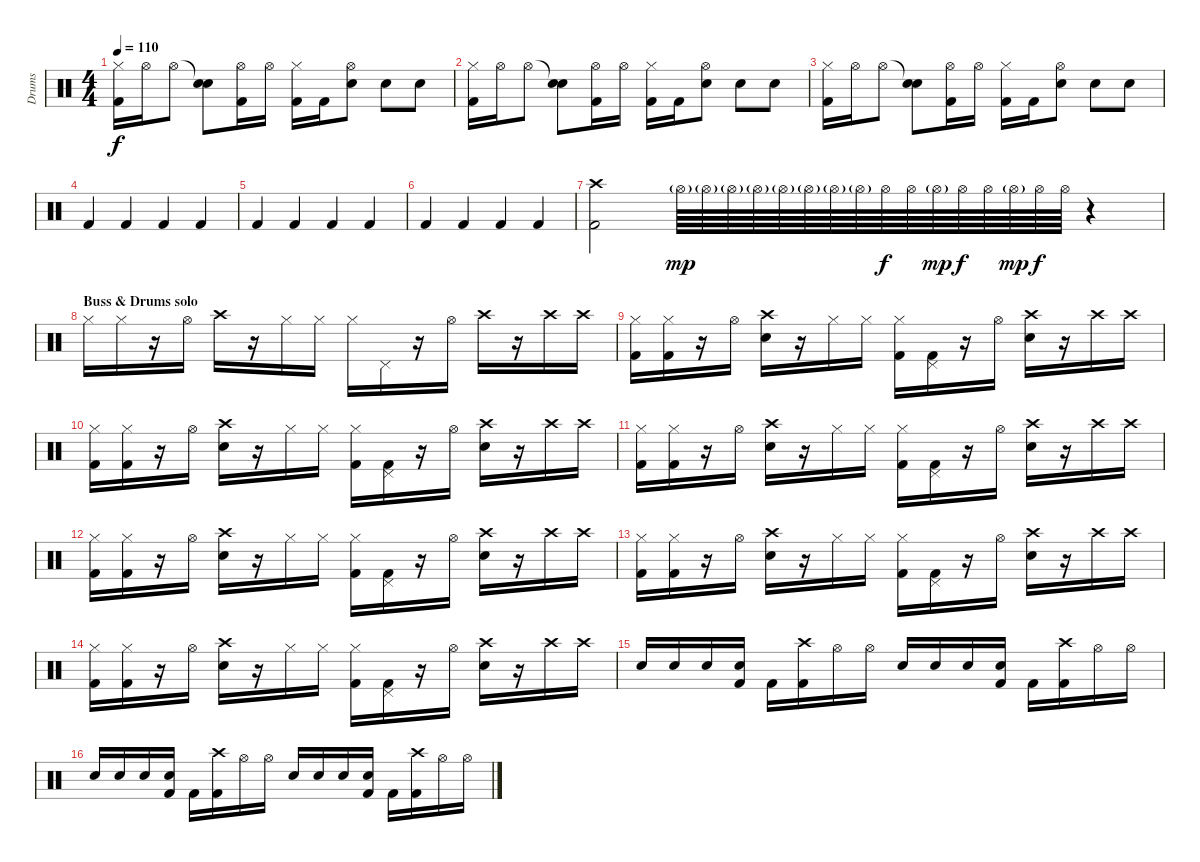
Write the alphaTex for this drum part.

\track ("Drums" "Drums") {instrument percussion}
\staff {score}
\articulation defaults
\ts (4 4)
\tempo 110
\clef neutral
\ks c
("Hi-Hat (closed)" "Kick (hit) 2").16{dy f} "Hi-Hat (open)".16 "Hi-Hat (open)".8 ("Snare (hit)"{t} "Snare (hit) 2").8 ("Hi-Hat (open)" "Kick (hit) 2").16 "Hi-Hat (open)".16 ("Hi-Hat (closed)" "Kick (hit) 2").16 "Kick (hit) 2".16 ("Hi-Hat (open)" "Snare (hit) 2").8 "Snare (hit) 2".8 "Snare (hit) 2".8 |
("Hi-Hat (closed)" "Kick (hit) 2").16 "Hi-Hat (open)".16 "Hi-Hat (open)".8 ("Snare (hit)"{t} "Snare (hit) 2").8 ("Hi-Hat (open)" "Kick (hit) 2").16 "Hi-Hat (open)".16 ("Hi-Hat (closed)" "Kick (hit) 2").16 "Kick (hit) 2".16 ("Hi-Hat (open)" "Snare (hit) 2").8 "Snare (hit) 2".8 "Snare (hit) 2".8 |
("Hi-Hat (closed)" "Kick (hit) 2").16 "Hi-Hat (open)".16 "Hi-Hat (open)".8 ("Snare (hit)"{t} "Snare (hit) 2").8 ("Hi-Hat (open)" "Kick (hit) 2").16 "Hi-Hat (open)".16 ("Hi-Hat (closed)" "Kick (hit) 2").16 "Kick (hit) 2".16 ("Hi-Hat (open)" "Snare (hit) 2").8 "Snare (hit) 2".8 "Snare (hit) 2".8 |
"Kick (hit) 2".4 "Kick (hit) 2".4 "Kick (hit) 2".4 "Kick (hit) 2".4 |
"Kick (hit) 2".4 "Kick (hit) 2".4 "Kick (hit) 2".4 "Kick (hit) 2".4 |
"Kick (hit) 2".4 "Kick (hit) 2".4 "Kick (hit) 2".4 "Kick (hit) 2".4 |
("Crash high (hit)" "Kick (hit) 2").2 "Hi-Hat (open)"{g}.64{dy mp} "Hi-Hat (open)"{g}.64 "Hi-Hat (open)"{g}.64 "Hi-Hat (open)"{g}.64 "Hi-Hat (open)"{g}.64 "Hi-Hat (open)"{g}.64 "Hi-Hat (open)"{g}.64 "Hi-Hat (open)"{g}.64 "Hi-Hat (open)".64{dy f} "Hi-Hat (open)".64 "Hi-Hat (open)"{g}.64{dy mp} "Hi-Hat (open)".64{dy f} "Hi-Hat (open)".64 "Hi-Hat (open)"{g}.64{dy mp} "Hi-Hat (open)".64{dy f} "Hi-Hat (open)".64 r.4 |
\section ("" "Buss & Drums solo")
"Hi-Hat (closed)".16 "Hi-Hat (closed)".16 r.16 "Hi-Hat (open)".16 "Crash high (hit)".16 r.16 "Hi-Hat (closed)".16 "Hi-Hat (closed)".16 "Hi-Hat (closed)".16 "Pedal Hi-Hat (hit)".16 r.16 "Hi-Hat (open)".16 "Crash high (hit)".16 r.16 "Crash high (hit)".16 "Crash high (hit)".16 |
("Hi-Hat (closed)" "Kick (hit) 2").16 ("Hi-Hat (closed)" "Kick (hit) 2").16 r.16 "Hi-Hat (open)".16 ("Crash high (hit)" "Snare (hit) 2").16 r.16 "Hi-Hat (closed)".16 "Hi-Hat (closed)".16 ("Hi-Hat (closed)" "Kick (hit) 2").16 ("Pedal Hi-Hat (hit)" "Kick (hit) 2").16 r.16 "Hi-Hat (open)".16 ("Crash high (hit)" "Snare (hit) 2").16 r.16 "Crash high (hit)".16 "Crash high (hit)".16 |
("Hi-Hat (closed)" "Kick (hit) 2").16 ("Hi-Hat (closed)" "Kick (hit) 2").16 r.16 "Hi-Hat (open)".16 ("Crash high (hit)" "Snare (hit) 2").16 r.16 "Hi-Hat (closed)".16 "Hi-Hat (closed)".16 ("Hi-Hat (closed)" "Kick (hit) 2").16 ("Pedal Hi-Hat (hit)" "Kick (hit) 2").16 r.16 "Hi-Hat (open)".16 ("Crash high (hit)" "Snare (hit) 2").16 r.16 "Crash high (hit)".16 "Crash high (hit)".16 |
("Hi-Hat (closed)" "Kick (hit) 2").16 ("Hi-Hat (closed)" "Kick (hit) 2").16 r.16 "Hi-Hat (open)".16 ("Crash high (hit)" "Snare (hit) 2").16 r.16 "Hi-Hat (closed)".16 "Hi-Hat (closed)".16 ("Hi-Hat (closed)" "Kick (hit) 2").16 ("Pedal Hi-Hat (hit)" "Kick (hit) 2").16 r.16 "Hi-Hat (open)".16 ("Crash high (hit)" "Snare (hit) 2").16 r.16 "Crash high (hit)".16 "Crash high (hit)".16 |
("Hi-Hat (closed)" "Kick (hit) 2").16 ("Hi-Hat (closed)" "Kick (hit) 2").16 r.16 "Hi-Hat (open)".16 ("Crash high (hit)" "Snare (hit) 2").16 r.16 "Hi-Hat (closed)".16 "Hi-Hat (closed)".16 ("Hi-Hat (closed)" "Kick (hit) 2").16 ("Pedal Hi-Hat (hit)" "Kick (hit) 2").16 r.16 "Hi-Hat (open)".16 ("Crash high (hit)" "Snare (hit) 2").16 r.16 "Crash high (hit)".16 "Crash high (hit)".16 |
("Hi-Hat (closed)" "Kick (hit) 2").16 ("Hi-Hat (closed)" "Kick (hit) 2").16 r.16 "Hi-Hat (open)".16 ("Crash high (hit)" "Snare (hit) 2").16 r.16 "Hi-Hat (closed)".16 "Hi-Hat (closed)".16 ("Hi-Hat (closed)" "Kick (hit) 2").16 ("Pedal Hi-Hat (hit)" "Kick (hit) 2").16 r.16 "Hi-Hat (open)".16 ("Crash high (hit)" "Snare (hit) 2").16 r.16 "Crash high (hit)".16 "Crash high (hit)".16 |
("Hi-Hat (closed)" "Kick (hit) 2").16 ("Hi-Hat (closed)" "Kick (hit) 2").16 r.16 "Hi-Hat (open)".16 ("Crash high (hit)" "Snare (hit) 2").16 r.16 "Hi-Hat (closed)".16 "Hi-Hat (closed)".16 ("Hi-Hat (closed)" "Kick (hit) 2").16 ("Pedal Hi-Hat (hit)" "Kick (hit) 2").16 r.16 "Hi-Hat (open)".16 ("Crash high (hit)" "Snare (hit) 2").16 r.16 "Crash high (hit)".16 "Crash high (hit)".16 |
"Snare (hit) 2".16 "Snare (hit) 2".16 "Snare (hit) 2".16 ("Snare (hit) 2" "Kick (hit) 2").16 "Kick (hit) 2".16 ("Crash high (hit)" "Kick (hit) 2").16 "Hi-Hat (open)".16 "Hi-Hat (open)".16 "Snare (hit) 2".16 "Snare (hit) 2".16 "Snare (hit) 2".16 ("Snare (hit) 2" "Kick (hit) 2").16 "Kick (hit) 2".16 ("Crash high (hit)" "Kick (hit) 2").16 "Hi-Hat (open)".16 "Hi-Hat (open)".16 |
"Snare (hit) 2".16 "Snare (hit) 2".16 "Snare (hit) 2".16 ("Snare (hit) 2" "Kick (hit) 2").16 "Kick (hit) 2".16 ("Crash high (hit)" "Kick (hit) 2").16 "Hi-Hat (open)".16 "Hi-Hat (open)".16 "Snare (hit) 2".16 "Snare (hit) 2".16 "Snare (hit) 2".16 ("Snare (hit) 2" "Kick (hit) 2").16 "Kick (hit) 2".16 ("Crash high (hit)" "Kick (hit) 2").16 "Hi-Hat (open)".16 "Hi-Hat (open)".16
